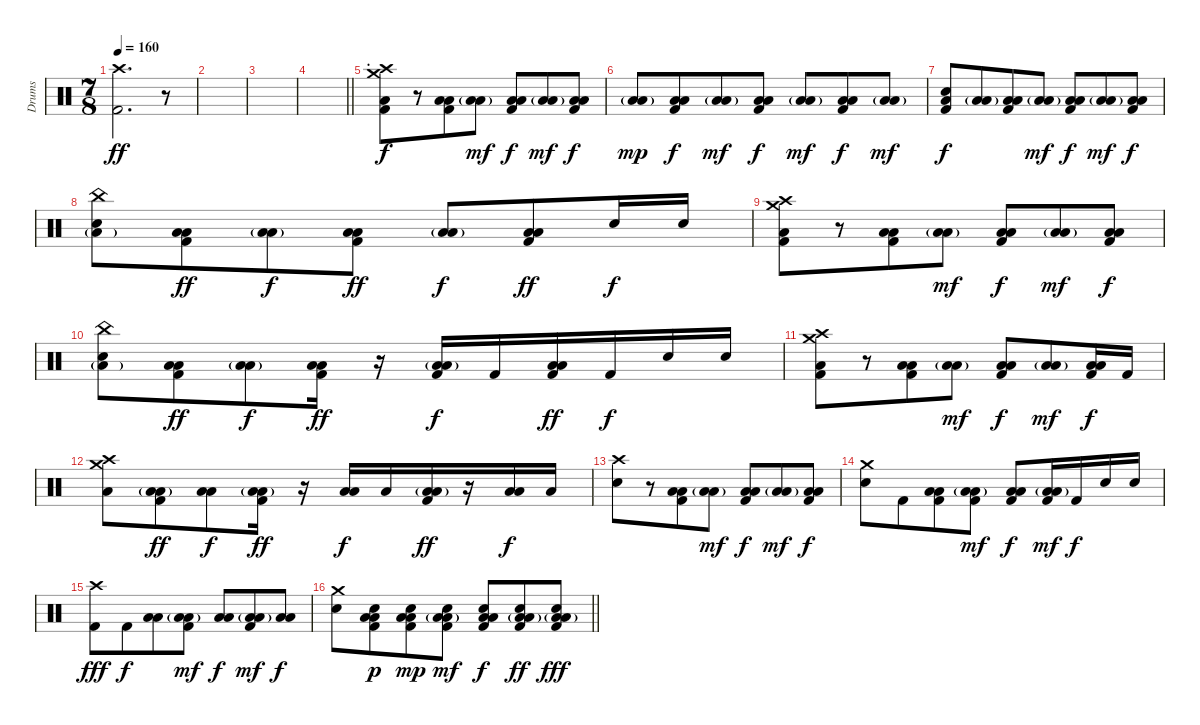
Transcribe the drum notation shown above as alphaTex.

\track ("Drums" "Drums") {instrument percussion}
\staff {score}
\articulation defaults
\ts (7 8)
\tempo 160
\clef neutral
\ks c
("Crash high (hit)" "Kick (hit) 2").2{d dy ff} r.8 |
|
|
\barLineRight lightlight
|
\section ("" ".")
("Crash high (hit)" "Crash medium (hit)" "Low Floor Tom (hit)" "Kick (hit) 2").8{dy f} r.8 ("Low Tom (hit)" "Low Floor Tom (hit)" "Kick (hit) 2").8 ("Low Tom (hit)"{g} "Low Floor Tom (hit)"{g}).8{dy mf} ("Low Tom (hit)" "Low Floor Tom (hit)" "Kick (hit) 2").8{dy f} ("Low Tom (hit)"{g} "Low Floor Tom (hit)"{g}).8{dy mf} ("Low Tom (hit)" "Low Floor Tom (hit)" "Kick (hit) 2").8{dy f} |
("Low Tom (hit)"{g} "Low Floor Tom (hit)"{g}).8{dy mp} ("Low Tom (hit)" "Low Floor Tom (hit)" "Kick (hit) 2").8{dy f} ("Low Tom (hit)"{g} "Low Floor Tom (hit)"{g}).8{dy mf} ("Low Tom (hit)" "Low Floor Tom (hit)" "Kick (hit) 2").8{dy f} ("Low Tom (hit)"{g} "Low Floor Tom (hit)"{g}).8{dy mf} ("Low Tom (hit)" "Low Floor Tom (hit)" "Kick (hit) 2").8{dy f} ("Low Tom (hit)"{g} "Low Floor Tom (hit)"{g}).8{dy mf} |
("Electric Snare (hit)" "Low Floor Tom (hit)" "Kick (hit) 2").8{dy f} ("Low Tom (hit)"{g} "Low Floor Tom (hit)"{g}).8 ("Low Tom (hit)" "Low Floor Tom (hit)" "Kick (hit) 2").8 ("Low Tom (hit)"{g} "Low Floor Tom (hit)"{g}).8{dy mf} ("Low Tom (hit)" "Low Floor Tom (hit)" "Kick (hit) 2").8{dy f} ("Low Tom (hit)"{g} "Low Floor Tom (hit)"{g}).8{dy mf} ("Low Tom (hit)" "Low Floor Tom (hit)" "Kick (hit) 2").8{dy f} |
("China (hit)" "Electric Snare (hit)" "Low Floor Tom (hit)"{g}).8 ("Low Tom (hit)" "Low Floor Tom (hit)" "Kick (hit) 2").8{dy ff} ("Low Tom (hit)"{g} "Low Floor Tom (hit)"{g}).8{dy f} ("Low Tom (hit)" "Low Floor Tom (hit)" "Kick (hit) 2").8{dy ff} ("Low Tom (hit)"{g} "Low Floor Tom (hit)"{g}).8{dy f} ("Low Tom (hit)" "Low Floor Tom (hit)" "Kick (hit) 2").8{dy ff} "Electric Snare (hit)".16{dy f} "Electric Snare (hit)".16 |
("Crash high (hit)" "Crash medium (hit)" "Low Floor Tom (hit)" "Kick (hit) 2").8 r.8 ("Low Tom (hit)" "Low Floor Tom (hit)" "Kick (hit) 2").8 ("Low Tom (hit)"{g} "Low Floor Tom (hit)"{g}).8{dy mf} ("Low Tom (hit)" "Low Floor Tom (hit)" "Kick (hit) 2").8{dy f} ("Low Tom (hit)"{g} "Low Floor Tom (hit)"{g}).8{dy mf} ("Low Tom (hit)" "Low Floor Tom (hit)" "Kick (hit) 2").8{dy f} |
("China (hit)" "Electric Snare (hit)" "Low Floor Tom (hit)"{g}).8 ("Low Tom (hit)" "Low Floor Tom (hit)" "Kick (hit) 2").8{dy ff} ("Low Tom (hit)"{g} "Low Floor Tom (hit)"{g}).8{dy f} ("Low Tom (hit)" "Low Floor Tom (hit)" "Kick (hit) 2").16{dy ff} r.16 ("Low Tom (hit)"{g} "Low Floor Tom (hit)"{g} "Kick (hit) 2").16{dy f} "Kick (hit) 2".16 ("Low Tom (hit)" "Low Floor Tom (hit)" "Kick (hit) 2").16{dy ff} "Kick (hit) 2".16{dy f} "Electric Snare (hit)".16 "Electric Snare (hit)".16 |
("Crash high (hit)" "Crash medium (hit)" "Low Floor Tom (hit)" "Kick (hit) 2").8 r.8 ("Low Tom (hit)" "Low Floor Tom (hit)" "Kick (hit) 2").8 ("Low Tom (hit)"{g} "Low Floor Tom (hit)"{g}).8{dy mf} ("Low Tom (hit)" "Low Floor Tom (hit)" "Kick (hit) 2").8{dy f} ("Low Tom (hit)"{g} "Low Floor Tom (hit)"{g}).8{dy mf} ("Low Tom (hit)" "Low Floor Tom (hit)" "Kick (hit) 2").16{dy f} "Kick (hit) 2".16 |
("Crash high (hit)" "Crash medium (hit)" "Low Floor Tom (hit)").8 ("Low Tom (hit)"{g} "Low Floor Tom (hit)"{g} "Kick (hit) 2").8{dy ff} ("Low Tom (hit)" "Low Floor Tom (hit)").8{dy f} ("Low Tom (hit)"{g} "Low Floor Tom (hit)"{g} "Kick (hit) 2").16{dy ff} r.16 ("Low Tom (hit)" "Low Floor Tom (hit)").16{dy f} "Low Tom (hit)".16 ("Low Tom (hit)"{g} "Low Floor Tom (hit)"{g} "Kick (hit) 2").16{dy ff} r.16 ("Low Tom (hit)" "Low Floor Tom (hit)").16{dy f} "Low Tom (hit)".16 |
("Crash high (hit)" "Electric Snare (hit)").8 r.8 ("Low Tom (hit)" "Low Floor Tom (hit)" "Kick (hit) 2").8 ("Low Tom (hit)"{g} "Low Floor Tom (hit)"{g}).8{dy mf} ("Low Tom (hit)" "Low Floor Tom (hit)" "Kick (hit) 2").8{dy f} ("Low Tom (hit)"{g} "Low Floor Tom (hit)"{g}).8{dy mf} ("Low Tom (hit)" "Low Floor Tom (hit)" "Kick (hit) 2").8{dy f} |
("Crash medium (hit)" "Electric Snare (hit)").8 "Kick (hit) 2".8 ("Low Tom (hit)" "Low Floor Tom (hit)" "Kick (hit) 2").8 ("Low Tom (hit)"{g} "Low Floor Tom (hit)"{g} "Kick (hit) 2").8{dy mf} ("Low Tom (hit)" "Low Floor Tom (hit)" "Kick (hit) 2").8{dy f} ("Low Tom (hit)"{g} "Low Floor Tom (hit)"{g} "Kick (hit) 2").16{dy mf} "Kick (hit) 2".16{dy f} "Electric Snare (hit)".16 "Electric Snare (hit)".16 |
("Crash high (hit)" "Kick (hit) 2").8{dy fff} "Kick (hit) 2".8{dy f} ("Low Tom (hit)" "Low Floor Tom (hit)").8 ("Low Tom (hit)"{g} "Low Floor Tom (hit)"{g} "Kick (hit) 2").8{dy mf} ("Low Tom (hit)" "Low Floor Tom (hit)").8{dy f} ("Low Tom (hit)"{g} "Low Floor Tom (hit)"{g} "Kick (hit) 2").8{dy mf} ("Low Tom (hit)" "Low Floor Tom (hit)").8{dy f} |
\barLineRight lightlight
("Crash medium (hit)" "Electric Snare (hit)").8 ("Low Tom (hit)" "Low Floor Tom (hit)" "Electric Snare (hit)" "Kick (hit) 2").8{dy p} ("Low Tom (hit)" "Low Floor Tom (hit)" "Electric Snare (hit)" "Kick (hit) 2").8{dy mp} ("Low Tom (hit)"{g} "Low Floor Tom (hit)"{g} "Electric Snare (hit)" "Kick (hit) 2").8{dy mf} ("Low Tom (hit)" "Low Floor Tom (hit)" "Electric Snare (hit)" "Kick (hit) 2").8{dy f} ("Low Tom (hit)"{g} "Low Floor Tom (hit)"{g} "Electric Snare (hit)" "Kick (hit) 2").8{dy ff} ("Low Tom (hit)"{g} "Low Floor Tom (hit)"{g} "Electric Snare (hit)" "Kick (hit) 2").8{dy fff}
